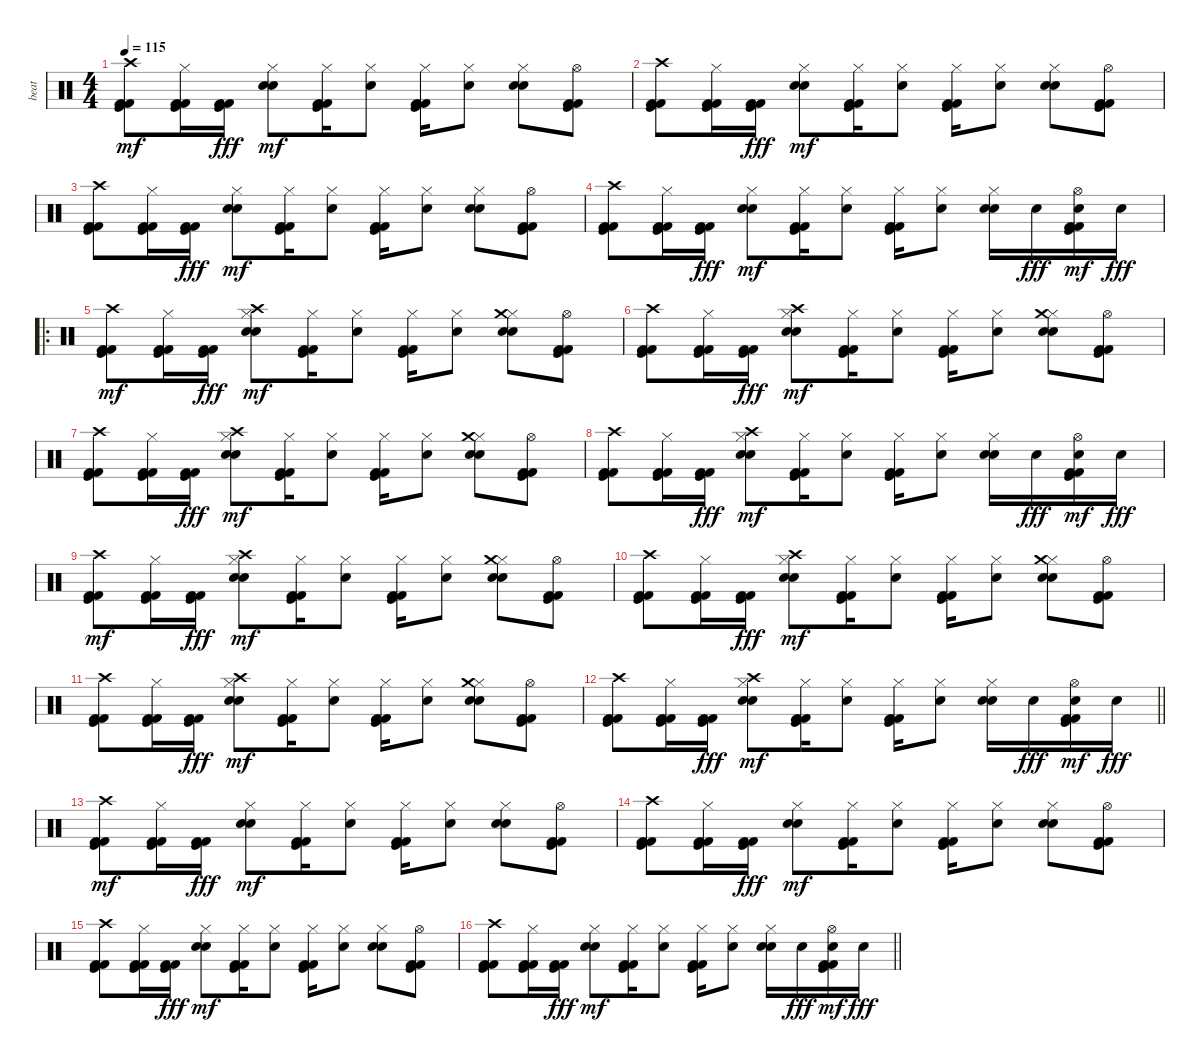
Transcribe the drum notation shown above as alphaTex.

\track ("beat" "beat") {instrument percussion}
\staff {score}
\articulation defaults
\ts (4 4)
\tempo 115
\clef neutral
\ks c
("Kick (hit)" "Kick (hit) 2" "Kick (hit) 2" "Crash high (hit)").8{dy mf} ("Kick (hit)" "Kick (hit) 2" "Kick (hit) 2" "Hi-Hat (closed)").16 ("Kick (hit)" "Kick (hit) 2" "Kick (hit) 2").16{dy fff} ("Snare (hit) 2" "Electric Snare (hit)" "Hi-Hat (closed)").8{dy mf} ("Kick (hit)" "Kick (hit) 2" "Kick (hit) 2" "Hi-Hat (closed)").16 ("Electric Snare (hit)" "Hi-Hat (closed)").8 ("Kick (hit)" "Kick (hit) 2" "Kick (hit) 2" "Hi-Hat (closed)").16 ("Electric Snare (hit)" "Hi-Hat (closed)").8 ("Snare (hit) 2" "Electric Snare (hit)" "Hi-Hat (closed)").8 ("Kick (hit)" "Kick (hit) 2" "Kick (hit) 2" "Hi-Hat (open)").8 |
("Kick (hit)" "Kick (hit) 2" "Kick (hit) 2" "Crash high (hit)").8 ("Kick (hit)" "Kick (hit) 2" "Kick (hit) 2" "Hi-Hat (closed)").16 ("Kick (hit)" "Kick (hit) 2" "Kick (hit) 2").16{dy fff} ("Snare (hit) 2" "Electric Snare (hit)" "Hi-Hat (closed)").8{dy mf} ("Kick (hit)" "Kick (hit) 2" "Kick (hit) 2" "Hi-Hat (closed)").16 ("Electric Snare (hit)" "Hi-Hat (closed)").8 ("Kick (hit)" "Kick (hit) 2" "Kick (hit) 2" "Hi-Hat (closed)").16 ("Electric Snare (hit)" "Hi-Hat (closed)").8 ("Snare (hit) 2" "Electric Snare (hit)" "Hi-Hat (closed)").8 ("Kick (hit)" "Kick (hit) 2" "Kick (hit) 2" "Hi-Hat (open)").8 |
("Kick (hit)" "Kick (hit) 2" "Kick (hit) 2" "Crash high (hit)").8 ("Kick (hit)" "Kick (hit) 2" "Kick (hit) 2" "Hi-Hat (closed)").16 ("Kick (hit)" "Kick (hit) 2" "Kick (hit) 2").16{dy fff} ("Snare (hit) 2" "Electric Snare (hit)" "Hi-Hat (closed)").8{dy mf} ("Kick (hit)" "Kick (hit) 2" "Kick (hit) 2" "Hi-Hat (closed)").16 ("Electric Snare (hit)" "Hi-Hat (closed)").8 ("Kick (hit)" "Kick (hit) 2" "Kick (hit) 2" "Hi-Hat (closed)").16 ("Electric Snare (hit)" "Hi-Hat (closed)").8 ("Snare (hit) 2" "Electric Snare (hit)" "Hi-Hat (closed)").8 ("Kick (hit)" "Kick (hit) 2" "Kick (hit) 2" "Hi-Hat (open)").8 |
("Kick (hit)" "Kick (hit) 2" "Kick (hit) 2" "Crash high (hit)").8 ("Kick (hit)" "Kick (hit) 2" "Kick (hit) 2" "Hi-Hat (closed)").16 ("Kick (hit)" "Kick (hit) 2" "Kick (hit) 2").16{dy fff} ("Snare (hit) 2" "Electric Snare (hit)" "Hi-Hat (closed)").8{dy mf} ("Kick (hit)" "Kick (hit) 2" "Kick (hit) 2" "Hi-Hat (closed)").16 ("Electric Snare (hit)" "Hi-Hat (closed)").8 ("Kick (hit)" "Kick (hit) 2" "Kick (hit) 2" "Hi-Hat (closed)").16 ("Electric Snare (hit)" "Hi-Hat (closed)").8 ("Snare (hit) 2" "Electric Snare (hit)" "Hi-Hat (closed)").16 "Electric Snare (hit)".16{dy fff} ("Kick (hit)" "Kick (hit) 2" "Kick (hit) 2" "Electric Snare (hit)" "Hi-Hat (open)").16{dy mf} "Electric Snare (hit)".16{dy fff} |
\ro
("Kick (hit)" "Kick (hit) 2" "Kick (hit) 2" "Crash high (hit)").8{dy mf} ("Kick (hit)" "Kick (hit) 2" "Kick (hit) 2" "Hi-Hat (closed)").16 ("Kick (hit)" "Kick (hit) 2" "Kick (hit) 2").16{dy fff} ("Snare (hit) 2" "Electric Snare (hit)" "Hi-Hat (closed)" "Crash high (hit)").8{dy mf} ("Kick (hit)" "Kick (hit) 2" "Kick (hit) 2" "Hi-Hat (closed)").16 ("Electric Snare (hit)" "Hi-Hat (closed)").8 ("Kick (hit)" "Kick (hit) 2" "Kick (hit) 2" "Hi-Hat (closed)").16 ("Electric Snare (hit)" "Hi-Hat (closed)").8 ("Snare (hit) 2" "Electric Snare (hit)" "Hi-Hat (closed)" "Crash medium (hit)").8 ("Kick (hit)" "Kick (hit) 2" "Kick (hit) 2" "Hi-Hat (open)").8 |
("Kick (hit)" "Kick (hit) 2" "Kick (hit) 2" "Crash high (hit)").8 ("Kick (hit)" "Kick (hit) 2" "Kick (hit) 2" "Hi-Hat (closed)").16 ("Kick (hit)" "Kick (hit) 2" "Kick (hit) 2").16{dy fff} ("Snare (hit) 2" "Electric Snare (hit)" "Hi-Hat (closed)" "Crash high (hit)").8{dy mf} ("Kick (hit)" "Kick (hit) 2" "Kick (hit) 2" "Hi-Hat (closed)").16 ("Electric Snare (hit)" "Hi-Hat (closed)").8 ("Kick (hit)" "Kick (hit) 2" "Kick (hit) 2" "Hi-Hat (closed)").16 ("Electric Snare (hit)" "Hi-Hat (closed)").8 ("Snare (hit) 2" "Electric Snare (hit)" "Hi-Hat (closed)" "Crash medium (hit)").8 ("Kick (hit)" "Kick (hit) 2" "Kick (hit) 2" "Hi-Hat (open)").8 |
("Kick (hit)" "Kick (hit) 2" "Kick (hit) 2" "Crash high (hit)").8 ("Kick (hit)" "Kick (hit) 2" "Kick (hit) 2" "Hi-Hat (closed)").16 ("Kick (hit)" "Kick (hit) 2" "Kick (hit) 2").16{dy fff} ("Snare (hit) 2" "Electric Snare (hit)" "Hi-Hat (closed)" "Crash high (hit)").8{dy mf} ("Kick (hit)" "Kick (hit) 2" "Kick (hit) 2" "Hi-Hat (closed)").16 ("Electric Snare (hit)" "Hi-Hat (closed)").8 ("Kick (hit)" "Kick (hit) 2" "Kick (hit) 2" "Hi-Hat (closed)").16 ("Electric Snare (hit)" "Hi-Hat (closed)").8 ("Snare (hit) 2" "Electric Snare (hit)" "Hi-Hat (closed)" "Crash medium (hit)").8 ("Kick (hit)" "Kick (hit) 2" "Kick (hit) 2" "Hi-Hat (open)").8 |
("Kick (hit)" "Kick (hit) 2" "Kick (hit) 2" "Crash high (hit)").8 ("Kick (hit)" "Kick (hit) 2" "Kick (hit) 2" "Hi-Hat (closed)").16 ("Kick (hit)" "Kick (hit) 2" "Kick (hit) 2").16{dy fff} ("Snare (hit) 2" "Electric Snare (hit)" "Hi-Hat (closed)" "Crash high (hit)").8{dy mf} ("Kick (hit)" "Kick (hit) 2" "Kick (hit) 2" "Hi-Hat (closed)").16 ("Electric Snare (hit)" "Hi-Hat (closed)").8 ("Kick (hit)" "Kick (hit) 2" "Kick (hit) 2" "Hi-Hat (closed)").16 ("Electric Snare (hit)" "Hi-Hat (closed)").8 ("Snare (hit) 2" "Electric Snare (hit)" "Hi-Hat (closed)").16 "Electric Snare (hit)".16{dy fff} ("Kick (hit)" "Kick (hit) 2" "Kick (hit) 2" "Electric Snare (hit)" "Hi-Hat (open)").16{dy mf} "Electric Snare (hit)".16{dy fff} |
("Kick (hit)" "Kick (hit) 2" "Kick (hit) 2" "Crash high (hit)").8{dy mf} ("Kick (hit)" "Kick (hit) 2" "Kick (hit) 2" "Hi-Hat (closed)").16 ("Kick (hit)" "Kick (hit) 2" "Kick (hit) 2").16{dy fff} ("Snare (hit) 2" "Electric Snare (hit)" "Hi-Hat (closed)" "Crash high (hit)").8{dy mf} ("Kick (hit)" "Kick (hit) 2" "Kick (hit) 2" "Hi-Hat (closed)").16 ("Electric Snare (hit)" "Hi-Hat (closed)").8 ("Kick (hit)" "Kick (hit) 2" "Kick (hit) 2" "Hi-Hat (closed)").16 ("Electric Snare (hit)" "Hi-Hat (closed)").8 ("Snare (hit) 2" "Electric Snare (hit)" "Hi-Hat (closed)" "Crash medium (hit)").8 ("Kick (hit)" "Kick (hit) 2" "Kick (hit) 2" "Hi-Hat (open)").8 |
("Kick (hit)" "Kick (hit) 2" "Kick (hit) 2" "Crash high (hit)").8 ("Kick (hit)" "Kick (hit) 2" "Kick (hit) 2" "Hi-Hat (closed)").16 ("Kick (hit)" "Kick (hit) 2" "Kick (hit) 2").16{dy fff} ("Snare (hit) 2" "Electric Snare (hit)" "Hi-Hat (closed)" "Crash high (hit)").8{dy mf} ("Kick (hit)" "Kick (hit) 2" "Kick (hit) 2" "Hi-Hat (closed)").16 ("Electric Snare (hit)" "Hi-Hat (closed)").8 ("Kick (hit)" "Kick (hit) 2" "Kick (hit) 2" "Hi-Hat (closed)").16 ("Electric Snare (hit)" "Hi-Hat (closed)").8 ("Snare (hit) 2" "Electric Snare (hit)" "Hi-Hat (closed)" "Crash medium (hit)").8 ("Kick (hit)" "Kick (hit) 2" "Kick (hit) 2" "Hi-Hat (open)").8 |
("Kick (hit)" "Kick (hit) 2" "Kick (hit) 2" "Crash high (hit)").8 ("Kick (hit)" "Kick (hit) 2" "Kick (hit) 2" "Hi-Hat (closed)").16 ("Kick (hit)" "Kick (hit) 2" "Kick (hit) 2").16{dy fff} ("Snare (hit) 2" "Electric Snare (hit)" "Hi-Hat (closed)" "Crash high (hit)").8{dy mf} ("Kick (hit)" "Kick (hit) 2" "Kick (hit) 2" "Hi-Hat (closed)").16 ("Electric Snare (hit)" "Hi-Hat (closed)").8 ("Kick (hit)" "Kick (hit) 2" "Kick (hit) 2" "Hi-Hat (closed)").16 ("Electric Snare (hit)" "Hi-Hat (closed)").8 ("Snare (hit) 2" "Electric Snare (hit)" "Hi-Hat (closed)" "Crash medium (hit)").8 ("Kick (hit)" "Kick (hit) 2" "Kick (hit) 2" "Hi-Hat (open)").8 |
\barLineRight lightlight
("Kick (hit)" "Kick (hit) 2" "Kick (hit) 2" "Crash high (hit)").8 ("Kick (hit)" "Kick (hit) 2" "Kick (hit) 2" "Hi-Hat (closed)").16 ("Kick (hit)" "Kick (hit) 2" "Kick (hit) 2").16{dy fff} ("Snare (hit) 2" "Electric Snare (hit)" "Hi-Hat (closed)" "Crash high (hit)").8{dy mf} ("Kick (hit)" "Kick (hit) 2" "Kick (hit) 2" "Hi-Hat (closed)").16 ("Electric Snare (hit)" "Hi-Hat (closed)").8 ("Kick (hit)" "Kick (hit) 2" "Kick (hit) 2" "Hi-Hat (closed)").16 ("Electric Snare (hit)" "Hi-Hat (closed)").8 ("Snare (hit) 2" "Electric Snare (hit)" "Hi-Hat (closed)").16 "Electric Snare (hit)".16{dy fff} ("Kick (hit)" "Kick (hit) 2" "Kick (hit) 2" "Electric Snare (hit)" "Hi-Hat (open)").16{dy mf} "Electric Snare (hit)".16{dy fff} |
("Kick (hit)" "Kick (hit) 2" "Kick (hit) 2" "Crash high (hit)").8{dy mf} ("Kick (hit)" "Kick (hit) 2" "Kick (hit) 2" "Hi-Hat (closed)").16 ("Kick (hit)" "Kick (hit) 2" "Kick (hit) 2").16{dy fff} ("Snare (hit) 2" "Electric Snare (hit)" "Hi-Hat (closed)").8{dy mf} ("Kick (hit)" "Kick (hit) 2" "Kick (hit) 2" "Hi-Hat (closed)").16 ("Electric Snare (hit)" "Hi-Hat (closed)").8 ("Kick (hit)" "Kick (hit) 2" "Kick (hit) 2" "Hi-Hat (closed)").16 ("Electric Snare (hit)" "Hi-Hat (closed)").8 ("Snare (hit) 2" "Electric Snare (hit)" "Hi-Hat (closed)").8 ("Kick (hit)" "Kick (hit) 2" "Kick (hit) 2" "Hi-Hat (open)").8 |
("Kick (hit)" "Kick (hit) 2" "Kick (hit) 2" "Crash high (hit)").8 ("Kick (hit)" "Kick (hit) 2" "Kick (hit) 2" "Hi-Hat (closed)").16 ("Kick (hit)" "Kick (hit) 2" "Kick (hit) 2").16{dy fff} ("Snare (hit) 2" "Electric Snare (hit)" "Hi-Hat (closed)").8{dy mf} ("Kick (hit)" "Kick (hit) 2" "Kick (hit) 2" "Hi-Hat (closed)").16 ("Electric Snare (hit)" "Hi-Hat (closed)").8 ("Kick (hit)" "Kick (hit) 2" "Kick (hit) 2" "Hi-Hat (closed)").16 ("Electric Snare (hit)" "Hi-Hat (closed)").8 ("Snare (hit) 2" "Electric Snare (hit)" "Hi-Hat (closed)").8 ("Kick (hit)" "Kick (hit) 2" "Kick (hit) 2" "Hi-Hat (open)").8 |
("Kick (hit)" "Kick (hit) 2" "Kick (hit) 2" "Crash high (hit)").8 ("Kick (hit)" "Kick (hit) 2" "Kick (hit) 2" "Hi-Hat (closed)").16 ("Kick (hit)" "Kick (hit) 2" "Kick (hit) 2").16{dy fff} ("Snare (hit) 2" "Electric Snare (hit)" "Hi-Hat (closed)").8{dy mf} ("Kick (hit)" "Kick (hit) 2" "Kick (hit) 2" "Hi-Hat (closed)").16 ("Electric Snare (hit)" "Hi-Hat (closed)").8 ("Kick (hit)" "Kick (hit) 2" "Kick (hit) 2" "Hi-Hat (closed)").16 ("Electric Snare (hit)" "Hi-Hat (closed)").8 ("Snare (hit) 2" "Electric Snare (hit)" "Hi-Hat (closed)").8 ("Kick (hit)" "Kick (hit) 2" "Kick (hit) 2" "Hi-Hat (open)").8 |
\barLineRight lightlight
("Kick (hit)" "Kick (hit) 2" "Kick (hit) 2" "Crash high (hit)").8 ("Kick (hit)" "Kick (hit) 2" "Kick (hit) 2" "Hi-Hat (closed)").16 ("Kick (hit)" "Kick (hit) 2" "Kick (hit) 2").16{dy fff} ("Snare (hit) 2" "Electric Snare (hit)" "Hi-Hat (closed)").8{dy mf} ("Kick (hit)" "Kick (hit) 2" "Kick (hit) 2" "Hi-Hat (closed)").16 ("Electric Snare (hit)" "Hi-Hat (closed)").8 ("Kick (hit)" "Kick (hit) 2" "Kick (hit) 2" "Hi-Hat (closed)").16 ("Electric Snare (hit)" "Hi-Hat (closed)").8 ("Snare (hit) 2" "Electric Snare (hit)" "Hi-Hat (closed)").16 "Electric Snare (hit)".16{dy fff} ("Kick (hit)" "Kick (hit) 2" "Kick (hit) 2" "Electric Snare (hit)" "Hi-Hat (open)").16{dy mf} "Electric Snare (hit)".16{dy fff}
